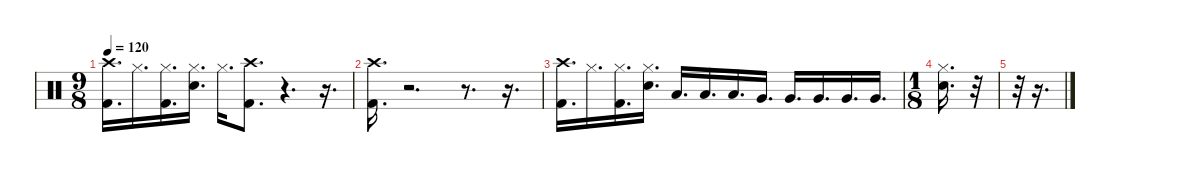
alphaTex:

\defaultSystemsLayout 4
\hideDynamics
\bracketExtendMode nobrackets
\singleTrackTrackNamePolicy hidden
\multiTrackTrackNamePolicy hidden
\otherSystemsTrackNameOrientation horizontal
\track ("Ulrich" "drm.") {instrument percussion}
\staff {score}
\articulation defaults
\ts (9 8)
\tempo 120
\clef neutral
\ks c
("Crash high (hit)" "Kick (hit) 2").16{d dy f beam Down} "Hi-Hat (closed)".16{d beam Down} ("Hi-Hat (closed)" "Kick (hit) 2").16{d beam Down} ("Hi-Hat (closed)" "Snare (hit) 2").16{d beam Down} "Hi-Hat (closed)".16{d beam Down} ("Crash high (hit)" "Kick (hit) 2").8{d beam Down} r.4{d beam Down} r.16{d beam Down} |
("Crash high (hit)" "Kick (hit) 2").16{d beam Down} r.2{d beam Down} r.8{d beam Down} r.16{d beam Down} |
("Crash high (hit)" "Kick (hit) 2").16{d beam Down} "Hi-Hat (closed)".16{d beam Down} ("Hi-Hat (closed)" "Kick (hit) 2").16{d beam Down} ("Hi-Hat (closed)" "Snare (hit) 2").16{d beam Down} "Low Tom (hit)".16{d dy fff beam Up} "Low Tom (hit)".16{d beam Up} "Low Tom (hit)".16{d beam Up} "Very Low Tom (hit)".16{d beam Up} "Very Low Tom (hit)".16{d beam Up} "Very Low Tom (hit)".16{d beam Up} "Very Low Tom (hit)".16{d beam Up} "Very Low Tom (hit)".16{d beam Up} |
\ts (1 8)
("Hi-Hat (closed)" "Snare (hit) 2").16{d dy f beam Down} r.32{beam Down} |
r.32{beam Down} r.16{d beam Down}
